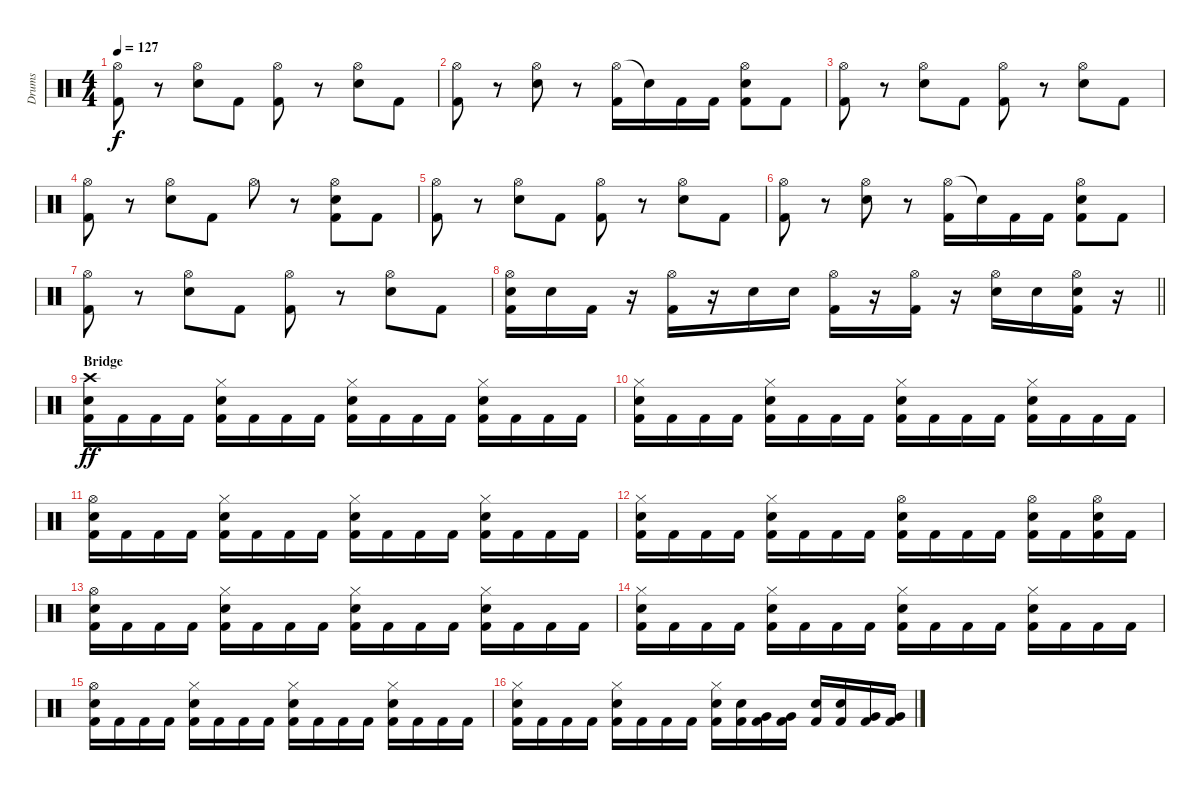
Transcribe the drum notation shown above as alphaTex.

\track ("Drums" "Drums") {instrument percussion}
\staff {score}
\articulation defaults
\ts (4 4)
\tempo 127
\clef neutral
\ks c
("Hi-Hat (open)" "Kick (hit) 2").8{dy f} r.8 ("Hi-Hat (open)" "Electric Snare (hit)").8 "Kick (hit) 2".8 ("Hi-Hat (open)" "Kick (hit) 2").8 r.8 ("Hi-Hat (open)" "Electric Snare (hit)").8 "Kick (hit) 2".8 |
("Hi-Hat (open)" "Kick (hit) 2").8 r.8 ("Hi-Hat (open)" "Electric Snare (hit)").8 r.8 ("Hi-Hat (open)" "Kick (hit) 2").16 "Snare (hit)"{t}.16 "Kick (hit) 2".16 "Kick (hit) 2".16 ("Hi-Hat (open)" "Electric Snare (hit)" "Kick (hit) 2").8 "Kick (hit) 2".8 |
("Hi-Hat (open)" "Kick (hit) 2").8 r.8 ("Hi-Hat (open)" "Electric Snare (hit)").8 "Kick (hit) 2".8 ("Hi-Hat (open)" "Kick (hit) 2").8 r.8 ("Hi-Hat (open)" "Electric Snare (hit)").8 "Kick (hit) 2".8 |
("Hi-Hat (open)" "Kick (hit) 2").8 r.8 ("Hi-Hat (open)" "Electric Snare (hit)").8 "Kick (hit) 2".8 "Hi-Hat (open)".8 r.8 ("Hi-Hat (open)" "Electric Snare (hit)" "Kick (hit) 2").8 "Kick (hit) 2".8 |
("Hi-Hat (open)" "Kick (hit) 2").8 r.8 ("Hi-Hat (open)" "Electric Snare (hit)").8 "Kick (hit) 2".8 ("Hi-Hat (open)" "Kick (hit) 2").8 r.8 ("Hi-Hat (open)" "Electric Snare (hit)").8 "Kick (hit) 2".8 |
("Hi-Hat (open)" "Kick (hit) 2").8 r.8 ("Hi-Hat (open)" "Electric Snare (hit)").8 r.8 ("Hi-Hat (open)" "Kick (hit) 2").16 "Snare (hit)"{t}.16 "Kick (hit) 2".16 "Kick (hit) 2".16 ("Hi-Hat (open)" "Electric Snare (hit)" "Kick (hit) 2").8 "Kick (hit) 2".8 |
("Hi-Hat (open)" "Kick (hit) 2").8 r.8 ("Hi-Hat (open)" "Electric Snare (hit)").8 "Kick (hit) 2".8 ("Hi-Hat (open)" "Kick (hit) 2").8 r.8 ("Hi-Hat (open)" "Electric Snare (hit)").8 "Kick (hit) 2".8 |
\barLineRight lightlight
("Hi-Hat (open)" "Electric Snare (hit)" "Kick (hit) 2").16 "Electric Snare (hit)".16 "Kick (hit) 2".16 r.16 ("Hi-Hat (open)" "Kick (hit) 2").16 r.16 "Electric Snare (hit)".16 "Electric Snare (hit)".16 ("Hi-Hat (open)" "Kick (hit) 2").16 r.16 ("Hi-Hat (open)" "Kick (hit) 2").16 r.16 ("Hi-Hat (open)" "Electric Snare (hit)").16 "Electric Snare (hit)".16 ("Hi-Hat (open)" "Electric Snare (hit)" "Kick (hit) 2").16 r.16 |
\section ("" "Bridge")
("Crash high (hit)" "Electric Snare (hit)" "Kick (hit) 2").16{dy ff} "Kick (hit) 2".16 "Kick (hit) 2".16 "Kick (hit) 2".16 ("Hi-Hat (closed)" "Electric Snare (hit)" "Kick (hit) 2").16 "Kick (hit) 2".16 "Kick (hit) 2".16 "Kick (hit) 2".16 ("Hi-Hat (closed)" "Electric Snare (hit)" "Kick (hit) 2").16 "Kick (hit) 2".16 "Kick (hit) 2".16 "Kick (hit) 2".16 ("Hi-Hat (closed)" "Electric Snare (hit)" "Kick (hit) 2").16 "Kick (hit) 2".16 "Kick (hit) 2".16 "Kick (hit) 2".16 |
("Hi-Hat (closed)" "Electric Snare (hit)" "Kick (hit) 2").16 "Kick (hit) 2".16 "Kick (hit) 2".16 "Kick (hit) 2".16 ("Hi-Hat (closed)" "Electric Snare (hit)" "Kick (hit) 2").16 "Kick (hit) 2".16 "Kick (hit) 2".16 "Kick (hit) 2".16 ("Hi-Hat (closed)" "Electric Snare (hit)" "Kick (hit) 2").16 "Kick (hit) 2".16 "Kick (hit) 2".16 "Kick (hit) 2".16 ("Hi-Hat (closed)" "Electric Snare (hit)" "Kick (hit) 2").16 "Kick (hit) 2".16 "Kick (hit) 2".16 "Kick (hit) 2".16 |
("Hi-Hat (open)" "Electric Snare (hit)" "Kick (hit) 2").16 "Kick (hit) 2".16 "Kick (hit) 2".16 "Kick (hit) 2".16 ("Hi-Hat (closed)" "Electric Snare (hit)" "Kick (hit) 2").16 "Kick (hit) 2".16 "Kick (hit) 2".16 "Kick (hit) 2".16 ("Hi-Hat (closed)" "Electric Snare (hit)" "Kick (hit) 2").16 "Kick (hit) 2".16 "Kick (hit) 2".16 "Kick (hit) 2".16 ("Hi-Hat (closed)" "Electric Snare (hit)" "Kick (hit) 2").16 "Kick (hit) 2".16 "Kick (hit) 2".16 "Kick (hit) 2".16 |
("Hi-Hat (closed)" "Electric Snare (hit)" "Kick (hit) 2").16 "Kick (hit) 2".16 "Kick (hit) 2".16 "Kick (hit) 2".16 ("Hi-Hat (closed)" "Electric Snare (hit)" "Kick (hit) 2").16 "Kick (hit) 2".16 "Kick (hit) 2".16 "Kick (hit) 2".16 ("Hi-Hat (open)" "Electric Snare (hit)" "Kick (hit) 2").16 "Kick (hit) 2".16 "Kick (hit) 2".16 "Kick (hit) 2".16 ("Hi-Hat (open)" "Electric Snare (hit)" "Kick (hit) 2").16 "Kick (hit) 2".16 ("Hi-Hat (open)" "Electric Snare (hit)" "Kick (hit) 2").16 "Kick (hit) 2".16 |
("Hi-Hat (open)" "Electric Snare (hit)" "Kick (hit) 2").16 "Kick (hit) 2".16 "Kick (hit) 2".16 "Kick (hit) 2".16 ("Hi-Hat (closed)" "Electric Snare (hit)" "Kick (hit) 2").16 "Kick (hit) 2".16 "Kick (hit) 2".16 "Kick (hit) 2".16 ("Hi-Hat (closed)" "Electric Snare (hit)" "Kick (hit) 2").16 "Kick (hit) 2".16 "Kick (hit) 2".16 "Kick (hit) 2".16 ("Hi-Hat (closed)" "Electric Snare (hit)" "Kick (hit) 2").16 "Kick (hit) 2".16 "Kick (hit) 2".16 "Kick (hit) 2".16 |
("Hi-Hat (closed)" "Electric Snare (hit)" "Kick (hit) 2").16 "Kick (hit) 2".16 "Kick (hit) 2".16 "Kick (hit) 2".16 ("Hi-Hat (closed)" "Electric Snare (hit)" "Kick (hit) 2").16 "Kick (hit) 2".16 "Kick (hit) 2".16 "Kick (hit) 2".16 ("Hi-Hat (closed)" "Electric Snare (hit)" "Kick (hit) 2").16 "Kick (hit) 2".16 "Kick (hit) 2".16 "Kick (hit) 2".16 ("Hi-Hat (closed)" "Electric Snare (hit)" "Kick (hit) 2").16 "Kick (hit) 2".16 "Kick (hit) 2".16 "Kick (hit) 2".16 |
("Hi-Hat (open)" "Electric Snare (hit)" "Kick (hit) 2").16 "Kick (hit) 2".16 "Kick (hit) 2".16 "Kick (hit) 2".16 ("Hi-Hat (closed)" "Electric Snare (hit)" "Kick (hit) 2").16 "Kick (hit) 2".16 "Kick (hit) 2".16 "Kick (hit) 2".16 ("Hi-Hat (closed)" "Electric Snare (hit)" "Kick (hit) 2").16 "Kick (hit) 2".16 "Kick (hit) 2".16 "Kick (hit) 2".16 ("Hi-Hat (closed)" "Electric Snare (hit)" "Kick (hit) 2").16 "Kick (hit) 2".16 "Kick (hit) 2".16 "Kick (hit) 2".16 |
("Hi-Hat (closed)" "Electric Snare (hit)" "Kick (hit) 2").16 "Kick (hit) 2".16 "Kick (hit) 2".16 "Kick (hit) 2".16 ("Hi-Hat (closed)" "Electric Snare (hit)" "Kick (hit) 2").16 "Kick (hit) 2".16 "Kick (hit) 2".16 "Kick (hit) 2".16 ("Hi-Hat (closed)" "Electric Snare (hit)" "Kick (hit) 2").16 ("Electric Snare (hit)" "Kick (hit) 2").16 ("Very Low Tom (hit)" "Kick (hit) 2").16 ("Very Low Tom (hit)" "Kick (hit) 2").16 ("Electric Snare (hit)" "Kick (hit) 2").16 ("Electric Snare (hit)" "Kick (hit) 2").16 ("Very Low Tom (hit)" "Kick (hit) 2").16 ("Very Low Tom (hit)" "Kick (hit) 2").16
